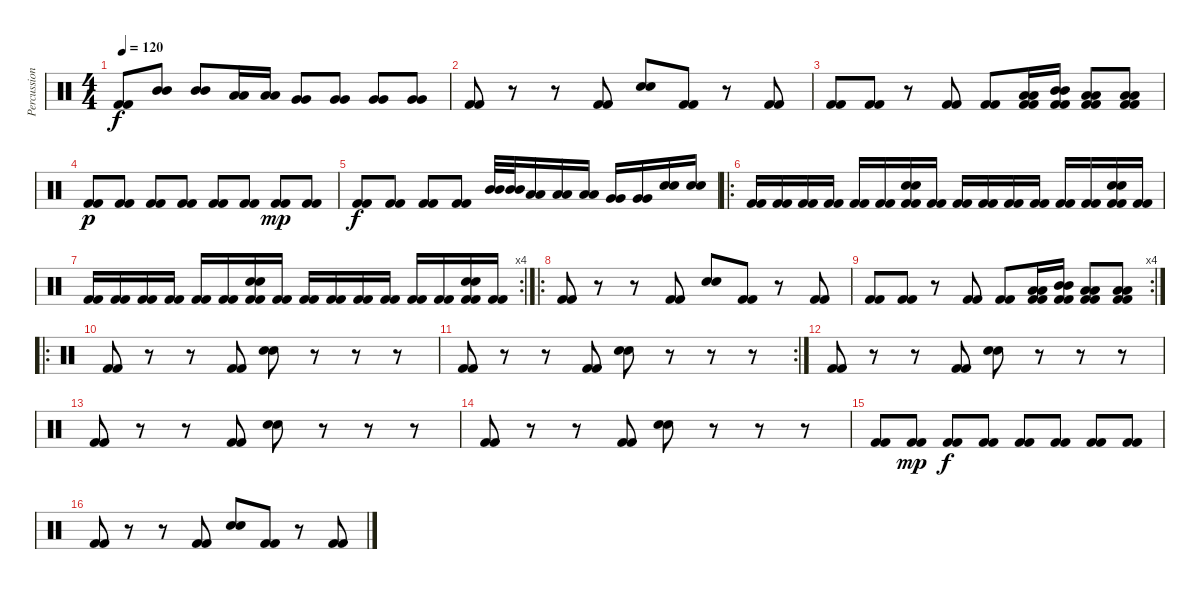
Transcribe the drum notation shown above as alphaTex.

\track ("Percussion" "Percussion") {instrument percussion}
\staff {score}
\articulation defaults
\ts (4 4)
\tempo 120
\clef neutral
\ks c
("Kick (hit) 2" "Kick (hit) 2").8{dy f} ("Mid Tom (hit)" "Mid Tom (hit)").8 ("Mid Tom (hit)" "Mid Tom (hit)").8 ("Low Tom (hit)" "Low Tom (hit)").16 ("Low Tom (hit)" "Low Tom (hit)").16 ("Very Low Tom (hit)" "Very Low Tom (hit)").8 ("Very Low Tom (hit)" "Very Low Tom (hit)").8 ("Very Low Tom (hit)" "Very Low Tom (hit)").8 ("Very Low Tom (hit)" "Very Low Tom (hit)").8 |
("Kick (hit) 2" "Kick (hit) 2").8 r.8 r.8 ("Kick (hit) 2" "Kick (hit) 2").8 ("Electric Snare (hit)" "Electric Snare (hit)").8 ("Kick (hit) 2" "Kick (hit) 2").8 r.8 ("Kick (hit) 2" "Kick (hit) 2").8 |
("Kick (hit) 2" "Kick (hit) 2").8 ("Kick (hit) 2" "Kick (hit) 2").8 r.8 ("Kick (hit) 2" "Kick (hit) 2").8 ("Kick (hit) 2" "Kick (hit) 2").8 ("Low Tom (hit)" "Low Tom (hit)" "Kick (hit) 2" "Kick (hit) 2").16 ("Mid Tom (hit)" "Mid Tom (hit)" "Kick (hit) 2" "Kick (hit) 2").16 ("Low Tom (hit)" "Low Tom (hit)" "Kick (hit) 2" "Kick (hit) 2").8 ("Low Tom (hit)" "Low Tom (hit)" "Kick (hit) 2" "Kick (hit) 2").8 |
("Kick (hit) 2" "Kick (hit) 2").8{dy p} ("Kick (hit) 2" "Kick (hit) 2").8 ("Kick (hit) 2" "Kick (hit) 2").8 ("Kick (hit) 2" "Kick (hit) 2").8 ("Kick (hit) 2" "Kick (hit) 2").8 ("Kick (hit) 2" "Kick (hit) 2").8 ("Kick (hit) 2" "Kick (hit) 2").8{dy mp} ("Kick (hit) 2" "Kick (hit) 2").8 |
("Kick (hit) 2" "Kick (hit) 2").8{dy f} ("Kick (hit) 2" "Kick (hit) 2").8 ("Kick (hit) 2" "Kick (hit) 2").8 ("Kick (hit) 2" "Kick (hit) 2").8 ("Mid Tom (hit)" "Mid Tom (hit)").32 ("Mid Tom (hit)" "Mid Tom (hit)").32 ("Low Tom (hit)" "Low Tom (hit)").16 ("Low Tom (hit)" "Low Tom (hit)").16 ("Low Tom (hit)" "Low Tom (hit)").16 ("Very Low Tom (hit)" "Very Low Tom (hit)").16 ("Very Low Tom (hit)" "Very Low Tom (hit)").16 ("Electric Snare (hit)" "Electric Snare (hit)").16 ("Electric Snare (hit)" "Electric Snare (hit)").16 |
\ro
("Kick (hit) 2" "Kick (hit) 2").16 ("Kick (hit) 2" "Kick (hit) 2").16 ("Kick (hit) 2" "Kick (hit) 2").16 ("Kick (hit) 2" "Kick (hit) 2").16 ("Kick (hit) 2" "Kick (hit) 2").16 ("Kick (hit) 2" "Kick (hit) 2").16 ("Electric Snare (hit)" "Electric Snare (hit)" "Kick (hit) 2" "Kick (hit) 2").16 ("Kick (hit) 2" "Kick (hit) 2").16 ("Kick (hit) 2" "Kick (hit) 2").16 ("Kick (hit) 2" "Kick (hit) 2").16 ("Kick (hit) 2" "Kick (hit) 2").16 ("Kick (hit) 2" "Kick (hit) 2").16 ("Kick (hit) 2" "Kick (hit) 2").16 ("Kick (hit) 2" "Kick (hit) 2").16 ("Electric Snare (hit)" "Electric Snare (hit)" "Kick (hit) 2" "Kick (hit) 2").16 ("Kick (hit) 2" "Kick (hit) 2").16 |
\rc 4
("Kick (hit) 2" "Kick (hit) 2").16 ("Kick (hit) 2" "Kick (hit) 2").16 ("Kick (hit) 2" "Kick (hit) 2").16 ("Kick (hit) 2" "Kick (hit) 2").16 ("Kick (hit) 2" "Kick (hit) 2").16 ("Kick (hit) 2" "Kick (hit) 2").16 ("Electric Snare (hit)" "Electric Snare (hit)" "Kick (hit) 2" "Kick (hit) 2").16 ("Kick (hit) 2" "Kick (hit) 2").16 ("Kick (hit) 2" "Kick (hit) 2").16 ("Kick (hit) 2" "Kick (hit) 2").16 ("Kick (hit) 2" "Kick (hit) 2").16 ("Kick (hit) 2" "Kick (hit) 2").16 ("Kick (hit) 2" "Kick (hit) 2").16 ("Kick (hit) 2" "Kick (hit) 2").16 ("Electric Snare (hit)" "Electric Snare (hit)" "Kick (hit) 2" "Kick (hit) 2").16 ("Kick (hit) 2" "Kick (hit) 2").16 |
\ro
("Kick (hit) 2" "Kick (hit) 2").8 r.8 r.8 ("Kick (hit) 2" "Kick (hit) 2").8 ("Electric Snare (hit)" "Electric Snare (hit)").8 ("Kick (hit) 2" "Kick (hit) 2").8 r.8 ("Kick (hit) 2" "Kick (hit) 2").8 |
\rc 4
("Kick (hit) 2" "Kick (hit) 2").8 ("Kick (hit) 2" "Kick (hit) 2").8 r.8 ("Kick (hit) 2" "Kick (hit) 2").8 ("Kick (hit) 2" "Kick (hit) 2").8 ("Low Tom (hit)" "Low Tom (hit)" "Kick (hit) 2" "Kick (hit) 2").16 ("Mid Tom (hit)" "Mid Tom (hit)" "Kick (hit) 2" "Kick (hit) 2").16 ("Low Tom (hit)" "Low Tom (hit)" "Kick (hit) 2" "Kick (hit) 2").8 ("Low Tom (hit)" "Low Tom (hit)" "Kick (hit) 2" "Kick (hit) 2").8 |
\ro
("Kick (hit) 2" "Kick (hit) 2").8 r.8 r.8 ("Kick (hit) 2" "Kick (hit) 2").8 ("Electric Snare (hit)" "Electric Snare (hit)").8 r.8 r.8 r.8 |
\rc 2
("Kick (hit) 2" "Kick (hit) 2").8 r.8 r.8 ("Kick (hit) 2" "Kick (hit) 2").8 ("Electric Snare (hit)" "Electric Snare (hit)").8 r.8 r.8 r.8 |
("Kick (hit) 2" "Kick (hit) 2").8 r.8 r.8 ("Kick (hit) 2" "Kick (hit) 2").8 ("Electric Snare (hit)" "Electric Snare (hit)").8 r.8 r.8 r.8 |
("Kick (hit) 2" "Kick (hit) 2").8 r.8 r.8 ("Kick (hit) 2" "Kick (hit) 2").8 ("Electric Snare (hit)" "Electric Snare (hit)").8 r.8 r.8 r.8 |
("Kick (hit) 2" "Kick (hit) 2").8 r.8 r.8 ("Kick (hit) 2" "Kick (hit) 2").8 ("Electric Snare (hit)" "Electric Snare (hit)").8 r.8 r.8 r.8 |
("Kick (hit) 2" "Kick (hit) 2").8 ("Kick (hit) 2" "Kick (hit) 2").8{dy mp} ("Kick (hit) 2" "Kick (hit) 2").8{dy f} ("Kick (hit) 2" "Kick (hit) 2").8 ("Kick (hit) 2" "Kick (hit) 2").8 ("Kick (hit) 2" "Kick (hit) 2").8 ("Kick (hit) 2" "Kick (hit) 2").8 ("Kick (hit) 2" "Kick (hit) 2").8 |
("Kick (hit) 2" "Kick (hit) 2").8 r.8 r.8 ("Kick (hit) 2" "Kick (hit) 2").8 ("Electric Snare (hit)" "Electric Snare (hit)").8 ("Kick (hit) 2" "Kick (hit) 2").8 r.8 ("Kick (hit) 2" "Kick (hit) 2").8
